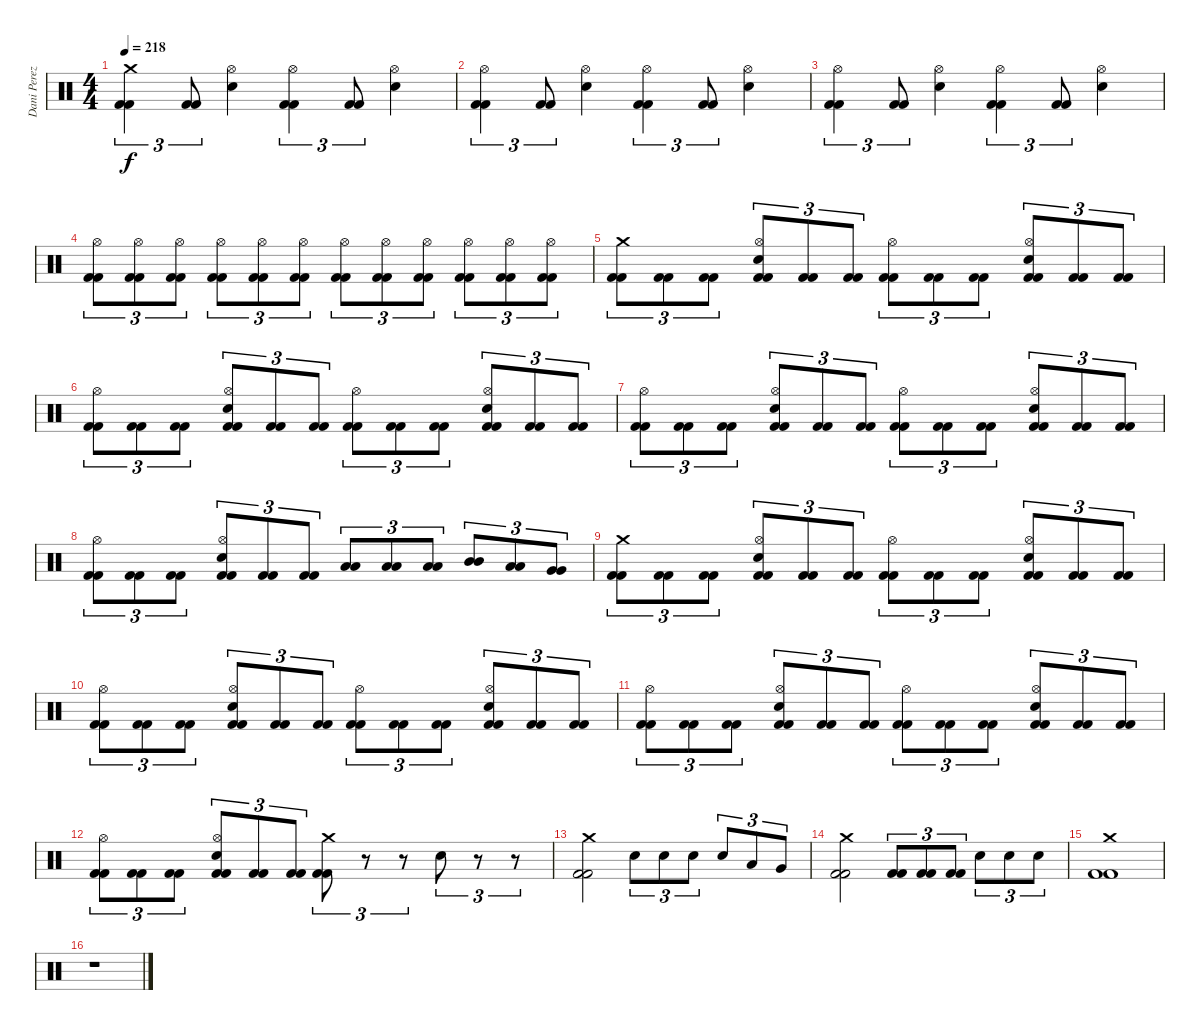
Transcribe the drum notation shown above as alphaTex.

\track ("Dani Perez" "Dani Perez") {instrument percussion}
\staff {score}
\articulation defaults
\ts (4 4)
\tempo 218
\clef neutral
\ks c
("Crash medium (hit)" "Kick (hit) 2" "Kick (hit) 2").4{tu (3 2) dy f} ("Kick (hit) 2" "Kick (hit) 2").8{tu (3 2)} ("Hi-Hat (open)" "Snare (hit) 2").4 ("Hi-Hat (open)" "Kick (hit) 2" "Kick (hit) 2").4{tu (3 2)} ("Kick (hit) 2" "Kick (hit) 2").8{tu (3 2)} ("Hi-Hat (open)" "Snare (hit) 2").4 |
("Hi-Hat (open)" "Kick (hit) 2" "Kick (hit) 2").4{tu (3 2)} ("Kick (hit) 2" "Kick (hit) 2").8{tu (3 2)} ("Hi-Hat (open)" "Snare (hit) 2").4 ("Hi-Hat (open)" "Kick (hit) 2" "Kick (hit) 2").4{tu (3 2)} ("Kick (hit) 2" "Kick (hit) 2").8{tu (3 2)} ("Hi-Hat (open)" "Snare (hit) 2").4 |
("Hi-Hat (open)" "Kick (hit) 2" "Kick (hit) 2").4{tu (3 2)} ("Kick (hit) 2" "Kick (hit) 2").8{tu (3 2)} ("Hi-Hat (open)" "Snare (hit) 2").4 ("Hi-Hat (open)" "Kick (hit) 2" "Kick (hit) 2").4{tu (3 2)} ("Kick (hit) 2" "Kick (hit) 2").8{tu (3 2)} ("Hi-Hat (open)" "Snare (hit) 2").4 |
("Hi-Hat (open)" "Kick (hit) 2" "Kick (hit) 2").8{tu (3 2)} ("Hi-Hat (open)" "Kick (hit) 2" "Kick (hit) 2").8{tu (3 2)} ("Hi-Hat (open)" "Kick (hit) 2" "Kick (hit) 2").8{tu (3 2)} ("Hi-Hat (open)" "Kick (hit) 2" "Kick (hit) 2").8{tu (3 2)} ("Hi-Hat (open)" "Kick (hit) 2" "Kick (hit) 2").8{tu (3 2)} ("Hi-Hat (open)" "Kick (hit) 2" "Kick (hit) 2").8{tu (3 2)} ("Hi-Hat (open)" "Kick (hit) 2" "Kick (hit) 2").8{tu (3 2)} ("Hi-Hat (open)" "Kick (hit) 2" "Kick (hit) 2").8{tu (3 2)} ("Hi-Hat (open)" "Kick (hit) 2" "Kick (hit) 2").8{tu (3 2)} ("Hi-Hat (open)" "Kick (hit) 2" "Kick (hit) 2").8{tu (3 2)} ("Hi-Hat (open)" "Kick (hit) 2" "Kick (hit) 2").8{tu (3 2)} ("Hi-Hat (open)" "Kick (hit) 2" "Kick (hit) 2").8{tu (3 2)} |
("Crash medium (hit)" "Kick (hit) 2" "Kick (hit) 2").8{tu (3 2)} ("Kick (hit) 2" "Kick (hit) 2").8{tu (3 2)} ("Kick (hit) 2" "Kick (hit) 2").8{tu (3 2)} ("Hi-Hat (open)" "Snare (hit) 2" "Kick (hit) 2" "Kick (hit) 2").8{tu (3 2)} ("Kick (hit) 2" "Kick (hit) 2").8{tu (3 2)} ("Kick (hit) 2" "Kick (hit) 2").8{tu (3 2)} ("Hi-Hat (open)" "Kick (hit) 2" "Kick (hit) 2").8{tu (3 2)} ("Kick (hit) 2" "Kick (hit) 2").8{tu (3 2)} ("Kick (hit) 2" "Kick (hit) 2").8{tu (3 2)} ("Hi-Hat (open)" "Snare (hit) 2" "Kick (hit) 2" "Kick (hit) 2").8{tu (3 2)} ("Kick (hit) 2" "Kick (hit) 2").8{tu (3 2)} ("Kick (hit) 2" "Kick (hit) 2").8{tu (3 2)} |
("Hi-Hat (open)" "Kick (hit) 2" "Kick (hit) 2").8{tu (3 2)} ("Kick (hit) 2" "Kick (hit) 2").8{tu (3 2)} ("Kick (hit) 2" "Kick (hit) 2").8{tu (3 2)} ("Hi-Hat (open)" "Snare (hit) 2" "Kick (hit) 2" "Kick (hit) 2").8{tu (3 2)} ("Kick (hit) 2" "Kick (hit) 2").8{tu (3 2)} ("Kick (hit) 2" "Kick (hit) 2").8{tu (3 2)} ("Hi-Hat (open)" "Kick (hit) 2" "Kick (hit) 2").8{tu (3 2)} ("Kick (hit) 2" "Kick (hit) 2").8{tu (3 2)} ("Kick (hit) 2" "Kick (hit) 2").8{tu (3 2)} ("Hi-Hat (open)" "Snare (hit) 2" "Kick (hit) 2" "Kick (hit) 2").8{tu (3 2)} ("Kick (hit) 2" "Kick (hit) 2").8{tu (3 2)} ("Kick (hit) 2" "Kick (hit) 2").8{tu (3 2)} |
("Hi-Hat (open)" "Kick (hit) 2" "Kick (hit) 2").8{tu (3 2)} ("Kick (hit) 2" "Kick (hit) 2").8{tu (3 2)} ("Kick (hit) 2" "Kick (hit) 2").8{tu (3 2)} ("Hi-Hat (open)" "Snare (hit) 2" "Kick (hit) 2" "Kick (hit) 2").8{tu (3 2)} ("Kick (hit) 2" "Kick (hit) 2").8{tu (3 2)} ("Kick (hit) 2" "Kick (hit) 2").8{tu (3 2)} ("Hi-Hat (open)" "Kick (hit) 2" "Kick (hit) 2").8{tu (3 2)} ("Kick (hit) 2" "Kick (hit) 2").8{tu (3 2)} ("Kick (hit) 2" "Kick (hit) 2").8{tu (3 2)} ("Hi-Hat (open)" "Snare (hit) 2" "Kick (hit) 2" "Kick (hit) 2").8{tu (3 2)} ("Kick (hit) 2" "Kick (hit) 2").8{tu (3 2)} ("Kick (hit) 2" "Kick (hit) 2").8{tu (3 2)} |
("Hi-Hat (open)" "Kick (hit) 2" "Kick (hit) 2").8{tu (3 2)} ("Kick (hit) 2" "Kick (hit) 2").8{tu (3 2)} ("Kick (hit) 2" "Kick (hit) 2").8{tu (3 2)} ("Hi-Hat (open)" "Snare (hit) 2" "Kick (hit) 2" "Kick (hit) 2").8{tu (3 2)} ("Kick (hit) 2" "Kick (hit) 2").8{tu (3 2)} ("Kick (hit) 2" "Kick (hit) 2").8{tu (3 2)} ("Low Tom (hit)" "Low Tom (hit)").8{tu (3 2)} ("Low Tom (hit)" "Low Tom (hit)").8{tu (3 2)} ("Low Tom (hit)" "Low Tom (hit)").8{tu (3 2)} ("Mid Tom (hit)" "Mid Tom (hit)").8{tu (3 2)} ("Low Tom (hit)" "Low Tom (hit)").8{tu (3 2)} ("Very Low Tom (hit)" "Very Low Tom (hit)").8{tu (3 2)} |
("Crash medium (hit)" "Kick (hit) 2" "Kick (hit) 2").8{tu (3 2)} ("Kick (hit) 2" "Kick (hit) 2").8{tu (3 2)} ("Kick (hit) 2" "Kick (hit) 2").8{tu (3 2)} ("Hi-Hat (open)" "Snare (hit) 2" "Kick (hit) 2" "Kick (hit) 2").8{tu (3 2)} ("Kick (hit) 2" "Kick (hit) 2").8{tu (3 2)} ("Kick (hit) 2" "Kick (hit) 2").8{tu (3 2)} ("Hi-Hat (open)" "Kick (hit) 2" "Kick (hit) 2").8{tu (3 2)} ("Kick (hit) 2" "Kick (hit) 2").8{tu (3 2)} ("Kick (hit) 2" "Kick (hit) 2").8{tu (3 2)} ("Hi-Hat (open)" "Snare (hit) 2" "Kick (hit) 2" "Kick (hit) 2").8{tu (3 2)} ("Kick (hit) 2" "Kick (hit) 2").8{tu (3 2)} ("Kick (hit) 2" "Kick (hit) 2").8{tu (3 2)} |
("Hi-Hat (open)" "Kick (hit) 2" "Kick (hit) 2").8{tu (3 2)} ("Kick (hit) 2" "Kick (hit) 2").8{tu (3 2)} ("Kick (hit) 2" "Kick (hit) 2").8{tu (3 2)} ("Hi-Hat (open)" "Snare (hit) 2" "Kick (hit) 2" "Kick (hit) 2").8{tu (3 2)} ("Kick (hit) 2" "Kick (hit) 2").8{tu (3 2)} ("Kick (hit) 2" "Kick (hit) 2").8{tu (3 2)} ("Hi-Hat (open)" "Kick (hit) 2" "Kick (hit) 2").8{tu (3 2)} ("Kick (hit) 2" "Kick (hit) 2").8{tu (3 2)} ("Kick (hit) 2" "Kick (hit) 2").8{tu (3 2)} ("Hi-Hat (open)" "Snare (hit) 2" "Kick (hit) 2" "Kick (hit) 2").8{tu (3 2)} ("Kick (hit) 2" "Kick (hit) 2").8{tu (3 2)} ("Kick (hit) 2" "Kick (hit) 2").8{tu (3 2)} |
("Hi-Hat (open)" "Kick (hit) 2" "Kick (hit) 2").8{tu (3 2)} ("Kick (hit) 2" "Kick (hit) 2").8{tu (3 2)} ("Kick (hit) 2" "Kick (hit) 2").8{tu (3 2)} ("Hi-Hat (open)" "Snare (hit) 2" "Kick (hit) 2" "Kick (hit) 2").8{tu (3 2)} ("Kick (hit) 2" "Kick (hit) 2").8{tu (3 2)} ("Kick (hit) 2" "Kick (hit) 2").8{tu (3 2)} ("Hi-Hat (open)" "Kick (hit) 2" "Kick (hit) 2").8{tu (3 2)} ("Kick (hit) 2" "Kick (hit) 2").8{tu (3 2)} ("Kick (hit) 2" "Kick (hit) 2").8{tu (3 2)} ("Hi-Hat (open)" "Snare (hit) 2" "Kick (hit) 2" "Kick (hit) 2").8{tu (3 2)} ("Kick (hit) 2" "Kick (hit) 2").8{tu (3 2)} ("Kick (hit) 2" "Kick (hit) 2").8{tu (3 2)} |
("Hi-Hat (open)" "Kick (hit) 2" "Kick (hit) 2").8{tu (3 2)} ("Kick (hit) 2" "Kick (hit) 2").8{tu (3 2)} ("Kick (hit) 2" "Kick (hit) 2").8{tu (3 2)} ("Hi-Hat (open)" "Snare (hit) 2" "Kick (hit) 2" "Kick (hit) 2").8{tu (3 2)} ("Kick (hit) 2" "Kick (hit) 2").8{tu (3 2)} ("Kick (hit) 2" "Kick (hit) 2").8{tu (3 2)} ("Crash medium (hit)" "Kick (hit) 2" "Kick (hit) 2").8{tu (3 2)} r.8{tu (3 2)} r.8{tu (3 2)} "Snare (hit) 2".8{tu (3 2)} r.8{tu (3 2)} r.8{tu (3 2)} |
("Crash medium (hit)" "Kick (hit) 2" "Kick (hit) 2").2 "Snare (hit) 2".8{tu (3 2)} "Snare (hit) 2".8{tu (3 2)} "Snare (hit) 2".8{tu (3 2)} "Snare (hit) 2".8{tu (3 2)} "Low Tom (hit)".8{tu (3 2)} "Very Low Tom (hit)".8{tu (3 2)} |
("Crash medium (hit)" "Kick (hit) 2" "Kick (hit) 2").2 ("Kick (hit) 2" "Kick (hit) 2").8{tu (3 2)} ("Kick (hit) 2" "Kick (hit) 2").8{tu (3 2)} ("Kick (hit) 2" "Kick (hit) 2").8{tu (3 2)} "Snare (hit) 2".8{tu (3 2)} "Snare (hit) 2".8{tu (3 2)} "Snare (hit) 2".8{tu (3 2)} |
("Crash medium (hit)" "Kick (hit) 2" "Kick (hit) 2").1 |
r.1
